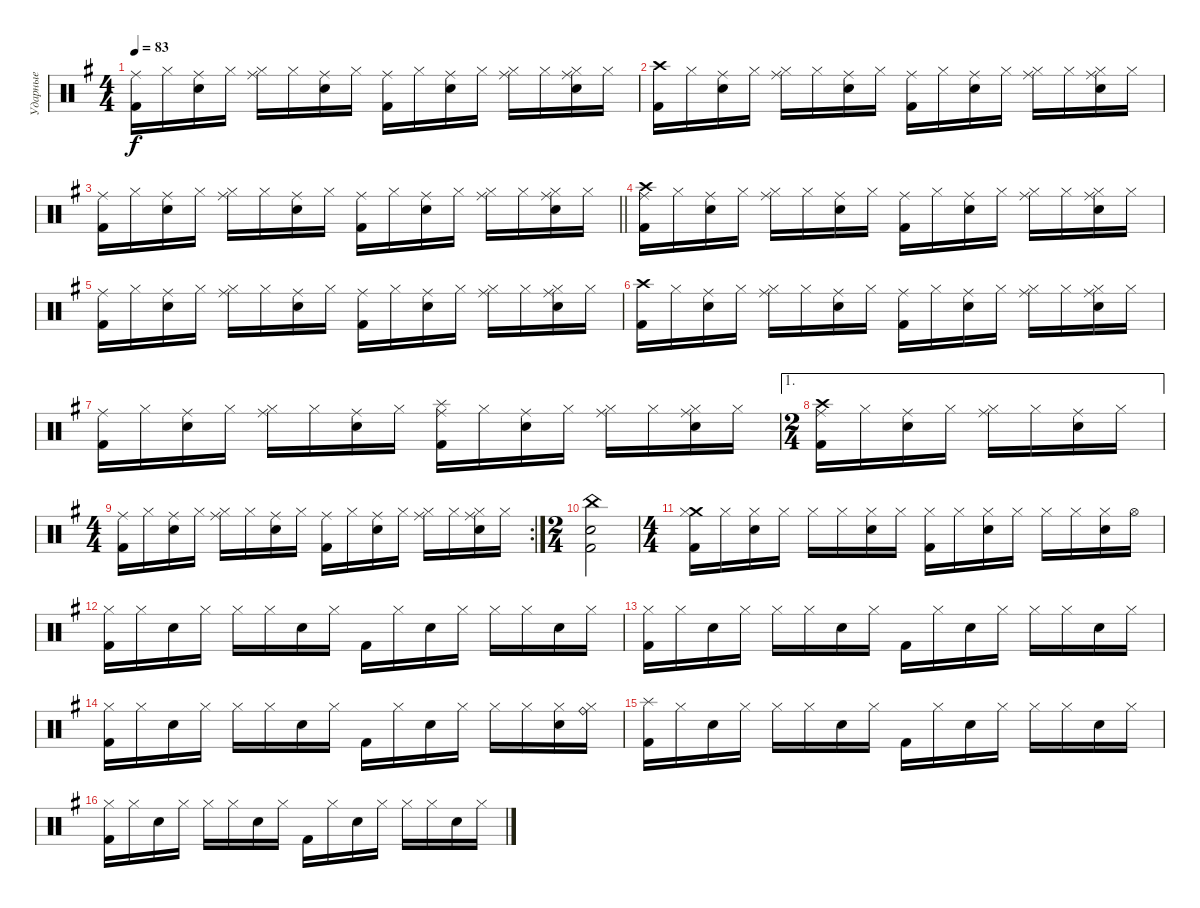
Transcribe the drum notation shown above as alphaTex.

\track ("Ударные" "Ударные") {instrument percussion}
\staff {score}
\articulation defaults
\ts (4 4)
\tempo 83
\clef neutral
\ks g
("Ride (middle)" "Kick (hit) 2").16{dy f} "Hi-Hat (closed)".16 ("Ride (middle)" "Snare (hit) 2").16 "Hi-Hat (closed)".16 ("Ride (middle)" "Hi-Hat (closed)").16 "Hi-Hat (closed)".16 ("Ride (middle)" "Snare (hit) 2").16 "Hi-Hat (closed)".16 ("Ride (middle)" "Kick (hit) 2").16 "Hi-Hat (closed)".16 ("Ride (middle)" "Snare (hit) 2").16 "Hi-Hat (closed)".16 ("Ride (middle)" "Hi-Hat (closed)").16 "Hi-Hat (closed)".16 ("Ride (middle)" "Hi-Hat (closed)" "Snare (hit) 2").16 "Hi-Hat (closed)".16 |
("Crash high (hit)" "Kick (hit) 2").16 "Hi-Hat (closed)".16 ("Ride (middle)" "Snare (hit) 2").16 "Hi-Hat (closed)".16 ("Ride (middle)" "Hi-Hat (closed)").16 "Hi-Hat (closed)".16 ("Ride (middle)" "Snare (hit) 2").16 "Hi-Hat (closed)".16 ("Ride (middle)" "Kick (hit) 2").16 "Hi-Hat (closed)".16 ("Ride (middle)" "Snare (hit) 2").16 "Hi-Hat (closed)".16 ("Ride (middle)" "Hi-Hat (closed)").16 "Hi-Hat (closed)".16 ("Ride (middle)" "Hi-Hat (closed)" "Snare (hit) 2").16 "Hi-Hat (closed)".16 |
\barLineRight lightlight
("Ride (middle)" "Kick (hit) 2").16 "Hi-Hat (closed)".16 ("Ride (middle)" "Snare (hit) 2").16 "Hi-Hat (closed)".16 ("Ride (middle)" "Hi-Hat (closed)").16 "Hi-Hat (closed)".16 ("Ride (middle)" "Snare (hit) 2").16 "Hi-Hat (closed)".16 ("Ride (middle)" "Kick (hit) 2").16 "Hi-Hat (closed)".16 ("Ride (middle)" "Snare (hit) 2").16 "Hi-Hat (closed)".16 ("Ride (middle)" "Hi-Hat (closed)").16 "Hi-Hat (closed)".16 ("Ride (middle)" "Hi-Hat (closed)" "Snare (hit) 2").16 "Hi-Hat (closed)".16 |
("Ride (middle)" "Crash high (hit)" "Kick (hit) 2").16 "Hi-Hat (closed)".16 ("Ride (middle)" "Snare (hit) 2").16 "Hi-Hat (closed)".16 ("Ride (middle)" "Hi-Hat (closed)").16 "Hi-Hat (closed)".16 ("Ride (middle)" "Snare (hit) 2").16 "Hi-Hat (closed)".16 ("Ride (middle)" "Kick (hit) 2").16 "Hi-Hat (closed)".16 ("Ride (middle)" "Snare (hit) 2").16 "Hi-Hat (closed)".16 ("Ride (middle)" "Hi-Hat (closed)").16 "Hi-Hat (closed)".16 ("Ride (middle)" "Hi-Hat (closed)" "Snare (hit) 2").16 "Hi-Hat (closed)".16 |
("Ride (middle)" "Kick (hit) 2").16 "Hi-Hat (closed)".16 ("Ride (middle)" "Snare (hit) 2").16 "Hi-Hat (closed)".16 ("Ride (middle)" "Hi-Hat (closed)").16 "Hi-Hat (closed)".16 ("Ride (middle)" "Snare (hit) 2").16 "Hi-Hat (closed)".16 ("Ride (middle)" "Kick (hit) 2").16 "Hi-Hat (closed)".16 ("Ride (middle)" "Snare (hit) 2").16 "Hi-Hat (closed)".16 ("Ride (middle)" "Hi-Hat (closed)").16 "Hi-Hat (closed)".16 ("Ride (middle)" "Hi-Hat (closed)" "Snare (hit) 2").16 "Hi-Hat (closed)".16 |
("Crash high (hit)" "Kick (hit) 2").16 "Hi-Hat (closed)".16 ("Ride (middle)" "Snare (hit) 2").16 "Hi-Hat (closed)".16 ("Ride (middle)" "Hi-Hat (closed)").16 "Hi-Hat (closed)".16 ("Ride (middle)" "Snare (hit) 2").16 "Hi-Hat (closed)".16 ("Ride (middle)" "Kick (hit) 2").16 "Hi-Hat (closed)".16 ("Ride (middle)" "Snare (hit) 2").16 "Hi-Hat (closed)".16 ("Ride (middle)" "Hi-Hat (closed)").16 "Hi-Hat (closed)".16 ("Ride (middle)" "Hi-Hat (closed)" "Snare (hit) 2").16 "Hi-Hat (closed)".16 |
("Ride (middle)" "Kick (hit) 2").16 "Hi-Hat (closed)".16 ("Ride (middle)" "Snare (hit) 2").16 "Hi-Hat (closed)".16 ("Ride (middle)" "Hi-Hat (closed)").16 "Hi-Hat (closed)".16 ("Ride (middle)" "Snare (hit) 2").16 "Hi-Hat (closed)".16 ("Ride (middle)" "Splash (hit)" "Kick (hit) 2").16 "Hi-Hat (closed)".16 ("Ride (middle)" "Snare (hit) 2").16 "Hi-Hat (closed)".16 ("Ride (middle)" "Hi-Hat (closed)").16 "Hi-Hat (closed)".16 ("Ride (middle)" "Hi-Hat (closed)" "Snare (hit) 2").16 "Hi-Hat (closed)".16 |
\ae 1
\ts (2 4)
("Ride (middle)" "Crash high (hit)" "Kick (hit) 2").16 "Hi-Hat (closed)".16 ("Ride (middle)" "Snare (hit) 2").16 "Hi-Hat (closed)".16 ("Ride (middle)" "Hi-Hat (closed)").16 "Hi-Hat (closed)".16 ("Ride (middle)" "Snare (hit) 2").16 "Hi-Hat (closed)".16 |
\rc 2
\ts (4 4)
("Ride (middle)" "Kick (hit) 2").16 "Hi-Hat (closed)".16 ("Ride (middle)" "Snare (hit) 2").16 "Hi-Hat (closed)".16 ("Ride (middle)" "Hi-Hat (closed)").16 "Hi-Hat (closed)".16 ("Ride (middle)" "Snare (hit) 2").16 "Hi-Hat (closed)".16 ("Ride (middle)" "Kick (hit) 2").16 "Hi-Hat (closed)".16 ("Ride (middle)" "Snare (hit) 2").16 "Hi-Hat (closed)".16 ("Ride (middle)" "Hi-Hat (closed)").16 "Hi-Hat (closed)".16 ("Ride (middle)" "Hi-Hat (closed)" "Snare (hit) 2").16 "Hi-Hat (closed)".16 |
\ts (2 4)
("China (hit)" "Snare (hit) 2" "Kick (hit) 2").2 |
\ts (4 4)
("Crash medium (hit)" "Hi-Hat (closed)" "Kick (hit) 2").16 "Hi-Hat (closed)".16 ("Hi-Hat (closed)" "Snare (hit) 2").16 "Hi-Hat (closed)".16 "Hi-Hat (closed)".16 "Hi-Hat (closed)".16 ("Hi-Hat (closed)" "Snare (hit) 2").16 "Hi-Hat (closed)".16 ("Hi-Hat (closed)" "Kick (hit) 2").16 "Hi-Hat (closed)".16 ("Hi-Hat (closed)" "Snare (hit) 2").16 "Hi-Hat (closed)".16 "Hi-Hat (closed)".16 "Hi-Hat (closed)".16 ("Hi-Hat (closed)" "Snare (hit) 2").16 "Hi-Hat (open)".16 |
("Hi-Hat (closed)" "Kick (hit) 2").16 "Hi-Hat (closed)".16 "Snare (hit) 2".16 "Hi-Hat (closed)".16 "Hi-Hat (closed)".16 "Hi-Hat (closed)".16 "Snare (hit) 2".16 "Hi-Hat (closed)".16 "Kick (hit) 2".16 "Hi-Hat (closed)".16 "Snare (hit) 2".16 "Hi-Hat (closed)".16 "Hi-Hat (closed)".16 "Hi-Hat (closed)".16 "Snare (hit) 2".16 "Hi-Hat (closed)".16 |
("Hi-Hat (closed)" "Kick (hit) 2").16 "Hi-Hat (closed)".16 "Snare (hit) 2".16 "Hi-Hat (closed)".16 "Hi-Hat (closed)".16 "Hi-Hat (closed)".16 "Snare (hit) 2".16 "Hi-Hat (closed)".16 "Kick (hit) 2".16 "Hi-Hat (closed)".16 "Snare (hit) 2".16 "Hi-Hat (closed)".16 "Hi-Hat (closed)".16 "Hi-Hat (closed)".16 "Snare (hit) 2".16 "Hi-Hat (closed)".16 |
("Hi-Hat (closed)" "Kick (hit) 2").16 "Hi-Hat (closed)".16 "Snare (hit) 2".16 "Hi-Hat (closed)".16 "Hi-Hat (closed)".16 "Hi-Hat (closed)".16 "Snare (hit) 2".16 "Hi-Hat (closed)".16 "Kick (hit) 2".16 "Hi-Hat (closed)".16 "Snare (hit) 2".16 "Hi-Hat (closed)".16 "Hi-Hat (closed)".16 "Hi-Hat (closed)".16 ("Hi-Hat (closed)" "Snare (hit) 2").16 ("Ride (bell)" "Hi-Hat (closed)").16 |
("Splash (hit)" "Kick (hit) 2").16 "Hi-Hat (closed)".16 "Snare (hit) 2".16 "Hi-Hat (closed)".16 "Hi-Hat (closed)".16 "Hi-Hat (closed)".16 "Snare (hit) 2".16 "Hi-Hat (closed)".16 "Kick (hit) 2".16 "Hi-Hat (closed)".16 "Snare (hit) 2".16 "Hi-Hat (closed)".16 "Hi-Hat (closed)".16 "Hi-Hat (closed)".16 "Snare (hit) 2".16 "Hi-Hat (closed)".16 |
("Hi-Hat (closed)" "Kick (hit) 2").16 "Hi-Hat (closed)".16 "Snare (hit) 2".16 "Hi-Hat (closed)".16 "Hi-Hat (closed)".16 "Hi-Hat (closed)".16 "Snare (hit) 2".16 "Hi-Hat (closed)".16 "Kick (hit) 2".16 "Hi-Hat (closed)".16 "Snare (hit) 2".16 "Hi-Hat (closed)".16 "Hi-Hat (closed)".16 "Hi-Hat (closed)".16 "Snare (hit) 2".16 "Hi-Hat (closed)".16
